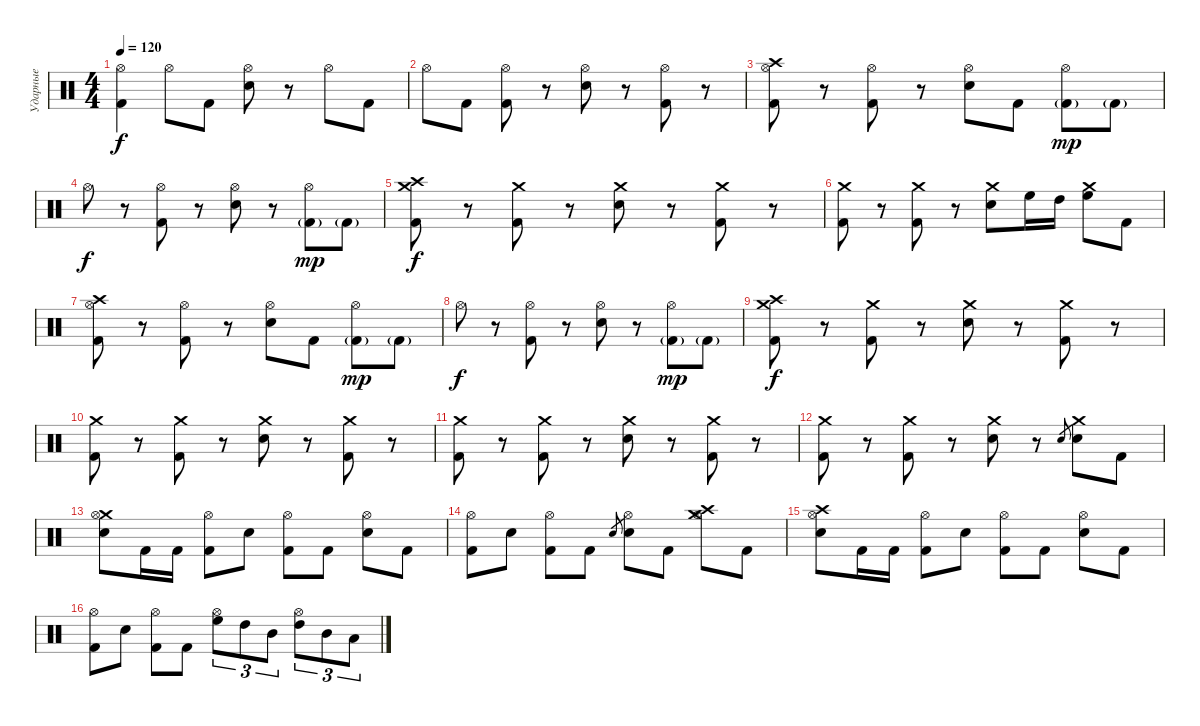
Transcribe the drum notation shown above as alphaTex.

\track ("Ударные" "Ударные") {instrument percussion}
\staff {score}
\articulation defaults
\ts (4 4)
\tempo 120
\clef neutral
\ks c
("Hi-Hat (open)" "Kick (hit) 2").4{dy f} "Hi-Hat (open)".8 "Kick (hit) 2".8 ("Hi-Hat (open)" "Electric Snare (hit)").8 r.8 "Hi-Hat (open)".8 "Kick (hit) 2".8 |
"Hi-Hat (open)".8 "Kick (hit) 2".8 ("Hi-Hat (open)" "Kick (hit) 2").8 r.8 ("Hi-Hat (open)" "Electric Snare (hit)").8 r.8 ("Hi-Hat (open)" "Kick (hit) 2").8 r.8 |
("Hi-Hat (open)" "Crash high (hit)" "Kick (hit) 2").8 r.8 ("Hi-Hat (open)" "Kick (hit) 2").8 r.8 ("Hi-Hat (open)" "Electric Snare (hit)").8 "Kick (hit) 2".8 ("Hi-Hat (open)" "Kick (hit) 2"{g}).8{dy mp} "Kick (hit) 2"{g}.8 |
"Hi-Hat (open)".8{dy f} r.8 ("Hi-Hat (open)" "Kick (hit) 2").8 r.8 ("Hi-Hat (open)" "Electric Snare (hit)").8 r.8 ("Hi-Hat (open)" "Kick (hit) 2"{g}).8{dy mp} "Kick (hit) 2"{g}.8 |
("Crash medium (hit)" "Crash high (hit)" "Kick (hit) 2").8{dy f} r.8 ("Crash medium (hit)" "Kick (hit) 2").8 r.8 ("Crash medium (hit)" "Electric Snare (hit)").8 r.8 ("Crash medium (hit)" "Kick (hit) 2").8 r.8 |
("Crash medium (hit)" "Kick (hit) 2").8 r.8 ("Crash medium (hit)" "Kick (hit) 2").8 r.8 ("Crash medium (hit)" "Electric Snare (hit)").8 "High Floor Tom (hit)".16 "High Tom (hit)".16 ("Crash medium (hit)" "High Floor Tom (hit)").8 "Kick (hit) 2".8 |
("Hi-Hat (open)" "Crash high (hit)" "Kick (hit) 2").8 r.8 ("Hi-Hat (open)" "Kick (hit) 2").8 r.8 ("Hi-Hat (open)" "Electric Snare (hit)").8 "Kick (hit) 2".8 ("Hi-Hat (open)" "Kick (hit) 2"{g}).8{dy mp} "Kick (hit) 2"{g}.8 |
"Hi-Hat (open)".8{dy f} r.8 ("Hi-Hat (open)" "Kick (hit) 2").8 r.8 ("Hi-Hat (open)" "Electric Snare (hit)").8 r.8 ("Hi-Hat (open)" "Kick (hit) 2"{g}).8{dy mp} "Kick (hit) 2"{g}.8 |
("Crash medium (hit)" "Crash high (hit)" "Kick (hit) 2").8{dy f} r.8 ("Crash medium (hit)" "Kick (hit) 2").8 r.8 ("Crash medium (hit)" "Electric Snare (hit)").8 r.8 ("Crash medium (hit)" "Kick (hit) 2").8 r.8 |
("Crash medium (hit)" "Kick (hit) 2").8 r.8 ("Crash medium (hit)" "Kick (hit) 2").8 r.8 ("Crash medium (hit)" "Electric Snare (hit)").8 r.8 ("Crash medium (hit)" "Kick (hit) 2").8 r.8 |
("Crash medium (hit)" "Kick (hit) 2").8 r.8 ("Crash medium (hit)" "Kick (hit) 2").8 r.8 ("Crash medium (hit)" "Electric Snare (hit)").8 r.8 ("Crash medium (hit)" "Kick (hit) 2").8 r.8 |
("Crash medium (hit)" "Kick (hit) 2").8 r.8 ("Crash medium (hit)" "Kick (hit) 2").8 r.8 ("Crash medium (hit)" "Electric Snare (hit)").8 r.8 "Electric Snare (hit)".8{gr} ("Crash medium (hit)" "Electric Snare (hit)").8 "Kick (hit) 2".8 |
("Crash medium (hit)" "Hi-Hat (open)" "Electric Snare (hit)").8 "Kick (hit) 2".16 "Kick (hit) 2".16 ("Hi-Hat (open)" "Kick (hit) 2").8 "Electric Snare (hit)".8 ("Hi-Hat (open)" "Kick (hit) 2").8 "Kick (hit) 2".8 ("Hi-Hat (open)" "Electric Snare (hit)").8 "Kick (hit) 2".8 |
("Hi-Hat (open)" "Kick (hit) 2").8 "Electric Snare (hit)".8 ("Hi-Hat (open)" "Kick (hit) 2").8 "Kick (hit) 2".8 "Electric Snare (hit)".8{gr} ("Hi-Hat (open)" "Electric Snare (hit)").8 "Kick (hit) 2".8 ("Hi-Hat (open)" "Crash medium (hit)" "Crash high (hit)").8 "Kick (hit) 2".8 |
("Crash high (hit)" "Hi-Hat (open)" "Electric Snare (hit)").8 "Kick (hit) 2".16 "Kick (hit) 2".16 ("Hi-Hat (open)" "Kick (hit) 2").8 "Electric Snare (hit)".8 ("Hi-Hat (open)" "Kick (hit) 2").8 "Kick (hit) 2".8 ("Hi-Hat (open)" "Electric Snare (hit)").8 "Kick (hit) 2".8 |
("Hi-Hat (open)" "Kick (hit) 2").8 "Electric Snare (hit)".8 ("Hi-Hat (open)" "Kick (hit) 2").8 "Kick (hit) 2".8 ("Hi-Hat (open)" "High Floor Tom (hit)").8{tu (3 2)} "High Tom (hit)".8{tu (3 2)} "Mid Tom (hit)".8{tu (3 2)} ("Hi-Hat (open)" "High Tom (hit)").8{tu (3 2)} "Mid Tom (hit)".8{tu (3 2)} "Low Tom (hit)".8{tu (3 2)}
